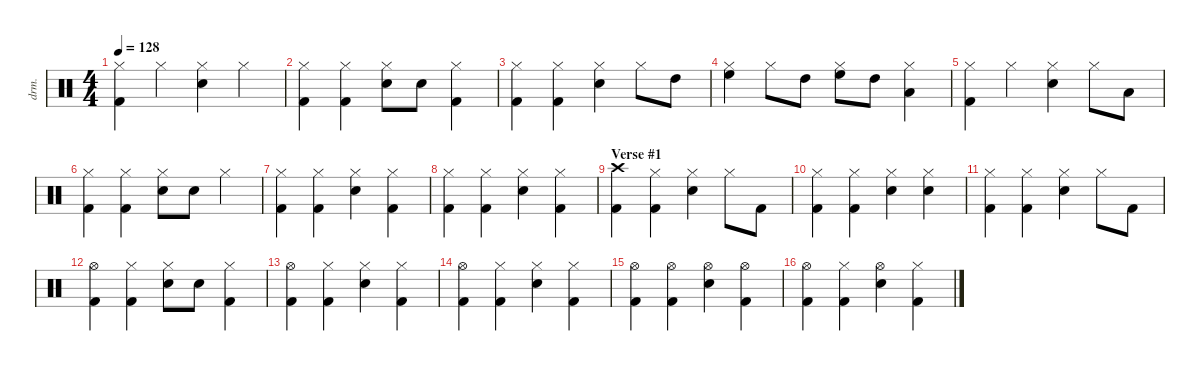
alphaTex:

\defaultSystemsLayout 4
\hideDynamics
\bracketExtendMode nobrackets
\otherSystemsTrackNameOrientation horizontal
\track ("Percussion" "drm.") {instrument percussion}
\staff {score}
\articulation defaults
\ts (4 4)
\tempo 128
\clef neutral
\ks c
("Hi-Hat (closed)" "Kick (hit) 2").4{dy f beam Down} "Hi-Hat (closed)".4{beam Down} ("Hi-Hat (closed)" "Snare (hit) 2").4{beam Down} "Hi-Hat (closed)".4{beam Down} |
("Hi-Hat (closed)" "Kick (hit) 2").4{beam Down} ("Hi-Hat (closed)" "Kick (hit) 2").4{beam Down} ("Hi-Hat (closed)" "Snare (hit) 2").8{beam Down} "Snare (hit) 2".8{dy mf beam Down} ("Hi-Hat (closed)" "Kick (hit) 2").4{dy f beam Down} |
("Hi-Hat (closed)" "Kick (hit) 2").4{beam Down} ("Hi-Hat (closed)" "Kick (hit) 2").4{beam Down} ("Hi-Hat (closed)" "Snare (hit) 2").4{beam Down} "Hi-Hat (closed)".8{beam Down} "High Tom (hit)".8{beam Down} |
("Hi-Hat (closed)" "High Floor Tom (hit)").4{beam Down} "Hi-Hat (closed)".8{beam Down} "High Tom (hit)".8{beam Down} ("Hi-Hat (closed)" "High Floor Tom (hit)").8{beam Down} "High Tom (hit)".8{beam Down} ("Hi-Hat (closed)" "Low Tom (hit)").4{beam Down} |
("Hi-Hat (closed)" "Kick (hit) 2").4{beam Down} "Hi-Hat (closed)".4{beam Down} ("Hi-Hat (closed)" "Snare (hit) 2").4{beam Down} "Hi-Hat (closed)".8{beam Down} "Low Tom (hit)".8{beam Down} |
("Hi-Hat (closed)" "Kick (hit) 2").4{beam Down} ("Hi-Hat (closed)" "Kick (hit) 2").4{beam Down} ("Hi-Hat (closed)" "Snare (hit) 2").8{beam Down} "Snare (hit) 2".8{beam Down} "Hi-Hat (closed)".4{beam Down} |
("Hi-Hat (closed)" "Kick (hit) 2").4{beam Down} ("Hi-Hat (closed)" "Kick (hit) 2").4{beam Down} ("Hi-Hat (closed)" "Snare (hit) 2").4{beam Down} ("Hi-Hat (closed)" "Kick (hit) 2").4{beam Down} |
("Hi-Hat (closed)" "Kick (hit) 2").4{beam Down} ("Hi-Hat (closed)" "Kick (hit) 2").4{beam Down} ("Hi-Hat (closed)" "Snare (hit) 2").4{beam Down} ("Hi-Hat (closed)" "Kick (hit) 2").4{beam Down} |
\section ("" "Verse #1")
("Crash high (hit)" "Kick (hit) 2").4{beam Down} ("Hi-Hat (closed)" "Kick (hit) 2").4{beam Down} ("Hi-Hat (closed)" "Snare (hit) 2").4{beam Down} "Hi-Hat (closed)".8{beam Down} "Kick (hit) 2".8{beam Down} |
("Hi-Hat (closed)" "Kick (hit) 2").4{beam Down} ("Hi-Hat (closed)" "Kick (hit) 2").4{beam Down} ("Hi-Hat (closed)" "Snare (hit) 2").4{beam Down} ("Hi-Hat (closed)" "Snare (hit) 2").4{beam Down} |
("Hi-Hat (closed)" "Kick (hit) 2").4{beam Down} ("Hi-Hat (closed)" "Kick (hit) 2").4{beam Down} ("Hi-Hat (closed)" "Snare (hit) 2").4{beam Down} "Hi-Hat (closed)".8{beam Down} "Kick (hit) 2".8{beam Down} |
("Hi-Hat (open)" "Kick (hit) 2").4{beam Down} ("Hi-Hat (closed)" "Kick (hit) 2").4{beam Down} ("Hi-Hat (closed)" "Snare (hit) 2").8{beam Down} "Snare (hit) 2".8{beam Down} ("Hi-Hat (closed)" "Kick (hit) 2").4{beam Down} |
("Hi-Hat (open)" "Kick (hit) 2").4{beam Down} ("Hi-Hat (closed)" "Kick (hit) 2").4{beam Down} ("Hi-Hat (closed)" "Snare (hit) 2").4{beam Down} ("Hi-Hat (closed)" "Kick (hit) 2").4{beam Down} |
("Hi-Hat (open)" "Kick (hit) 2").4{beam Down} ("Hi-Hat (closed)" "Kick (hit) 2").4{beam Down} ("Hi-Hat (closed)" "Snare (hit) 2").4{beam Down} ("Hi-Hat (closed)" "Kick (hit) 2").4{beam Down} |
("Hi-Hat (open)" "Kick (hit) 2").4{beam Down} ("Hi-Hat (open)" "Kick (hit) 2").4{beam Down} ("Hi-Hat (open)" "Snare (hit) 2").4{beam Down} ("Hi-Hat (open)" "Kick (hit) 2").4{beam Down} |
("Hi-Hat (open)" "Kick (hit) 2").4{beam Down} ("Hi-Hat (closed)" "Kick (hit) 2").4{beam Down} ("Hi-Hat (open)" "Snare (hit) 2").4{beam Down} ("Hi-Hat (closed)" "Kick (hit) 2").4{beam Down}
